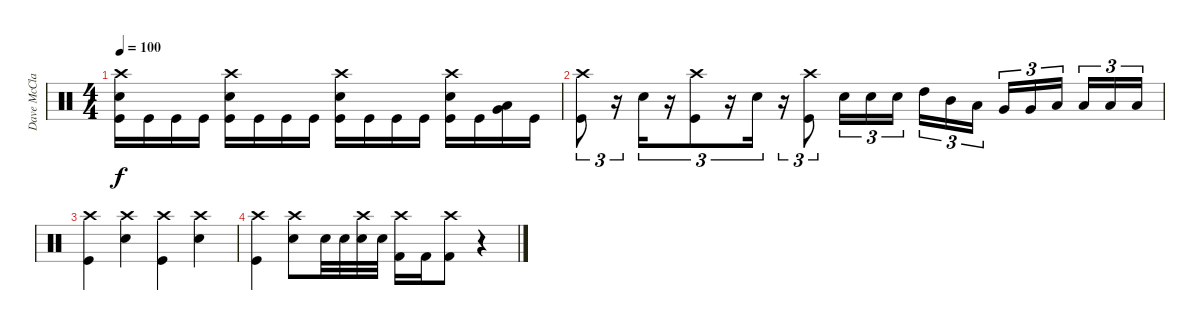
\track ("Dave McClain" "Dave McCla") {instrument percussion}
\staff {score}
\articulation defaults
\ts (4 4)
\tempo 100
\clef neutral
\ks c
("Crash high (hit)" "Snare (hit) 2" "Kick (hit)").16{dy f} "Kick (hit)".16 "Kick (hit)".16 "Kick (hit)".16 ("Crash high (hit)" "Snare (hit) 2" "Kick (hit)").16 "Kick (hit)".16 "Kick (hit)".16 "Kick (hit)".16 ("Crash high (hit)" "Snare (hit) 2" "Kick (hit)").16 "Kick (hit)".16 "Kick (hit)".16 "Kick (hit)".16 ("Crash high (hit)" "Snare (hit) 2" "Kick (hit)").16 "Kick (hit)".16 ("Very Low Tom (hit)" "Low Floor Tom (hit)").16 "Kick (hit)".16 |
("Crash high (hit)" "Kick (hit)").8{tu (3 2)} r.16{tu (3 2)} "Snare (hit) 2".16{tu (3 2)} r.16{tu (3 2)} ("Crash high (hit)" "Kick (hit)").8{tu (3 2)} r.16{tu (3 2)} "Snare (hit) 2".16{tu (3 2)} r.16{tu (3 2)} ("Crash high (hit)" "Kick (hit)").8{tu (3 2)} "Snare (hit) 2".16{tu (3 2)} "Snare (hit) 2".16{tu (3 2)} "Snare (hit) 2".16{tu (3 2)} "High Tom (hit)".16{tu (3 2)} "Mid Tom (hit)".16{tu (3 2)} "Low Tom (hit)".16{tu (3 2)} "Very Low Tom (hit)".16{tu (3 2)} "Very Low Tom (hit)".16{tu (3 2)} "Low Floor Tom (hit)".16{tu (3 2)} "Low Floor Tom (hit)".16{tu (3 2)} "Low Floor Tom (hit)".16{tu (3 2)} "Low Floor Tom (hit)".16{tu (3 2)} |
("Crash high (hit)" "Kick (hit)").4 ("Crash high (hit)" "Snare (hit) 2").4 ("Crash high (hit)" "Kick (hit)").4 ("Crash high (hit)" "Snare (hit) 2").4 |
("Crash high (hit)" "Kick (hit)").4 ("Crash high (hit)" "Snare (hit) 2").8 "Snare (hit) 2".32 "Snare (hit) 2".32 ("Crash high (hit)" "Snare (hit) 2").32 "Snare (hit) 2".32 ("Crash high (hit)" "Kick (hit) 2").16 "Kick (hit) 2".16 ("Crash high (hit)" "Kick (hit) 2").8 r.4
